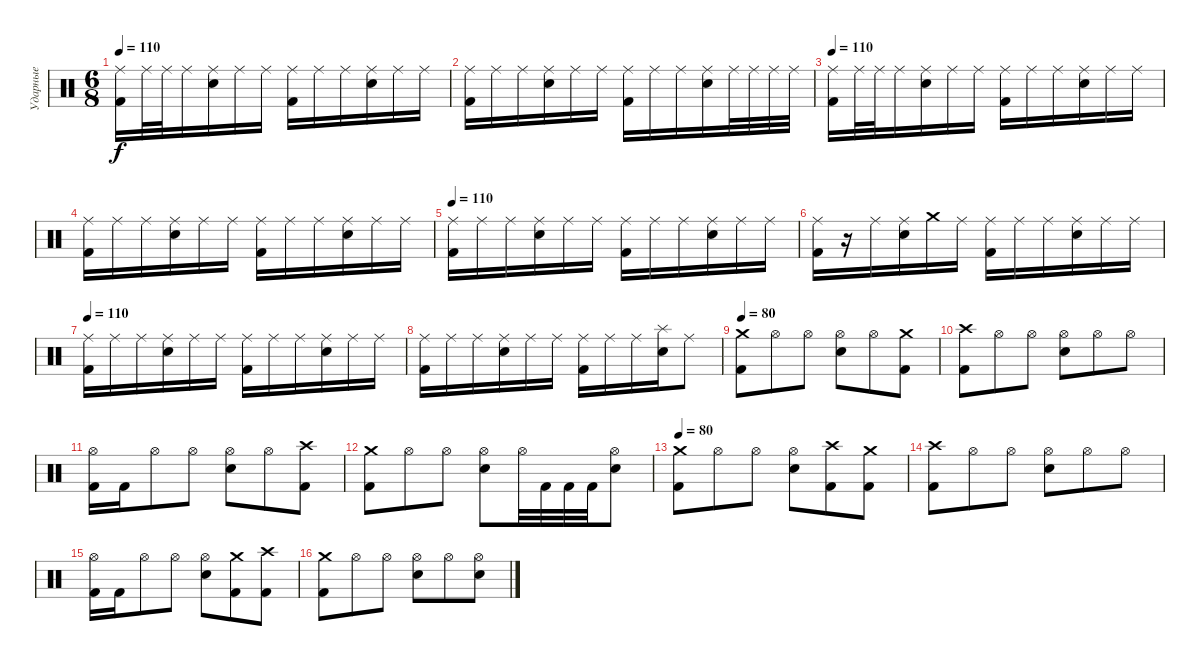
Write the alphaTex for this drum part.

\track ("Ударные" "Ударные") {instrument percussion}
\staff {score}
\articulation defaults
\ts (6 8)
\tempo 110
\clef neutral
\ks c
("Ride (middle)" "Kick (hit) 2").16{dy f} "Ride (middle)".32 "Ride (middle)".32 "Ride (middle)".16 ("Ride (middle)" "Electric Snare (hit)").16 "Ride (middle)".16 "Ride (middle)".16 ("Ride (middle)" "Kick (hit) 2").16 "Ride (middle)".16 "Ride (middle)".16 ("Ride (middle)" "Electric Snare (hit)").16 "Ride (middle)".16 "Ride (middle)".16 |
("Ride (middle)" "Kick (hit) 2").16 "Ride (middle)".16 "Ride (middle)".16 ("Ride (middle)" "Electric Snare (hit)").16 "Ride (middle)".16 "Ride (middle)".16 ("Ride (middle)" "Kick (hit) 2").16 "Ride (middle)".16 "Ride (middle)".16 ("Ride (middle)" "Electric Snare (hit)").16 "Ride (middle)".32 "Ride (middle)".32 "Ride (middle)".32 "Ride (middle)".32 |
\tempo 110
("Ride (middle)" "Kick (hit) 2").16 "Ride (middle)".32 "Ride (middle)".32 "Ride (middle)".16 ("Ride (middle)" "Electric Snare (hit)").16 "Ride (middle)".16 "Ride (middle)".16 ("Ride (middle)" "Kick (hit) 2").16 "Ride (middle)".16 "Ride (middle)".16 ("Ride (middle)" "Electric Snare (hit)").16 "Ride (middle)".16 "Ride (middle)".16 |
("Ride (middle)" "Kick (hit) 2").16 "Ride (middle)".16 "Ride (middle)".16 ("Ride (middle)" "Electric Snare (hit)").16 "Ride (middle)".16 "Ride (middle)".16 ("Ride (middle)" "Kick (hit) 2").16 "Ride (middle)".16 "Ride (middle)".16 ("Ride (middle)" "Electric Snare (hit)").16 "Ride (middle)".16 "Ride (middle)".16 |
\tempo 110
("Ride (middle)" "Kick (hit) 2").16 "Ride (middle)".16 "Ride (middle)".16 ("Ride (middle)" "Electric Snare (hit)").16 "Ride (middle)".16 "Ride (middle)".16 ("Ride (middle)" "Kick (hit) 2").16 "Ride (middle)".16 "Ride (middle)".16 ("Ride (middle)" "Electric Snare (hit)").16 "Ride (middle)".16 "Ride (middle)".16 |
("Ride (middle)" "Kick (hit) 2").16 r.16 "Ride (middle)".16 ("Ride (middle)" "Electric Snare (hit)").16 "Crash medium (hit)".16 "Ride (middle)".16 ("Ride (middle)" "Kick (hit) 2").16 "Ride (middle)".16 "Ride (middle)".16 ("Ride (middle)" "Electric Snare (hit)").16 "Ride (middle)".16 "Ride (middle)".16 |
\tempo 110
("Ride (middle)" "Kick (hit) 2").16 "Ride (middle)".16 "Ride (middle)".16 ("Ride (middle)" "Electric Snare (hit)").16 "Ride (middle)".16 "Ride (middle)".16 ("Ride (middle)" "Kick (hit) 2").16 "Ride (middle)".16 "Ride (middle)".16 ("Ride (middle)" "Electric Snare (hit)").16 "Ride (middle)".16 "Ride (middle)".16 |
("Ride (middle)" "Kick (hit) 2").16 "Ride (middle)".16 "Ride (middle)".16 ("Ride (middle)" "Electric Snare (hit)").16 "Ride (middle)".16 "Ride (middle)".16 ("Ride (middle)" "Kick (hit) 2").16 "Ride (middle)".16 "Ride (middle)".16 ("Splash (hit)" "Electric Snare (hit)").16 "Ride (middle)".8 |
\tempo 80
("Crash medium (hit)" "Kick (hit) 2").8 "Hi-Hat (open)".8 "Hi-Hat (open)".8 ("Hi-Hat (open)" "Electric Snare (hit)").8 "Hi-Hat (open)".8 ("Crash medium (hit)" "Kick (hit) 2").8 |
("Crash high (hit)" "Kick (hit) 2").8 "Hi-Hat (open)".8 "Hi-Hat (open)".8 ("Hi-Hat (open)" "Electric Snare (hit)").8 "Hi-Hat (open)".8 "Hi-Hat (open)".8 |
("Hi-Hat (open)" "Kick (hit) 2").16 "Kick (hit) 2".16 "Hi-Hat (open)".8 "Hi-Hat (open)".8 ("Hi-Hat (open)" "Electric Snare (hit)").8 "Hi-Hat (open)".8 ("Crash high (hit)" "Kick (hit) 2").8 |
("Crash medium (hit)" "Kick (hit) 2").8 "Hi-Hat (open)".8 "Hi-Hat (open)".8 ("Hi-Hat (open)" "Electric Snare (hit)").8 "Hi-Hat (open)".32 "Kick (hit) 2".32 "Kick (hit) 2".32 "Kick (hit) 2".32 ("Hi-Hat (open)" "Electric Snare (hit)").8 |
\tempo 80
("Crash medium (hit)" "Kick (hit) 2").8 "Hi-Hat (open)".8 "Hi-Hat (open)".8 ("Hi-Hat (open)" "Electric Snare (hit)").8 ("Crash high (hit)" "Kick (hit) 2").8 ("Crash medium (hit)" "Kick (hit) 2").8 |
("Crash high (hit)" "Kick (hit) 2").8 "Hi-Hat (open)".8 "Hi-Hat (open)".8 ("Hi-Hat (open)" "Electric Snare (hit)").8 "Hi-Hat (open)".8 "Hi-Hat (open)".8 |
("Hi-Hat (open)" "Kick (hit) 2").16 "Kick (hit) 2".16 "Hi-Hat (open)".8 "Hi-Hat (open)".8 ("Hi-Hat (open)" "Electric Snare (hit)").8 ("Crash medium (hit)" "Kick (hit) 2").8 ("Crash high (hit)" "Kick (hit) 2").8 |
("Crash medium (hit)" "Kick (hit) 2").8 "Hi-Hat (open)".8 "Hi-Hat (open)".8 ("Hi-Hat (open)" "Electric Snare (hit)").8 "Hi-Hat (open)".8 ("Hi-Hat (open)" "Electric Snare (hit)").8
